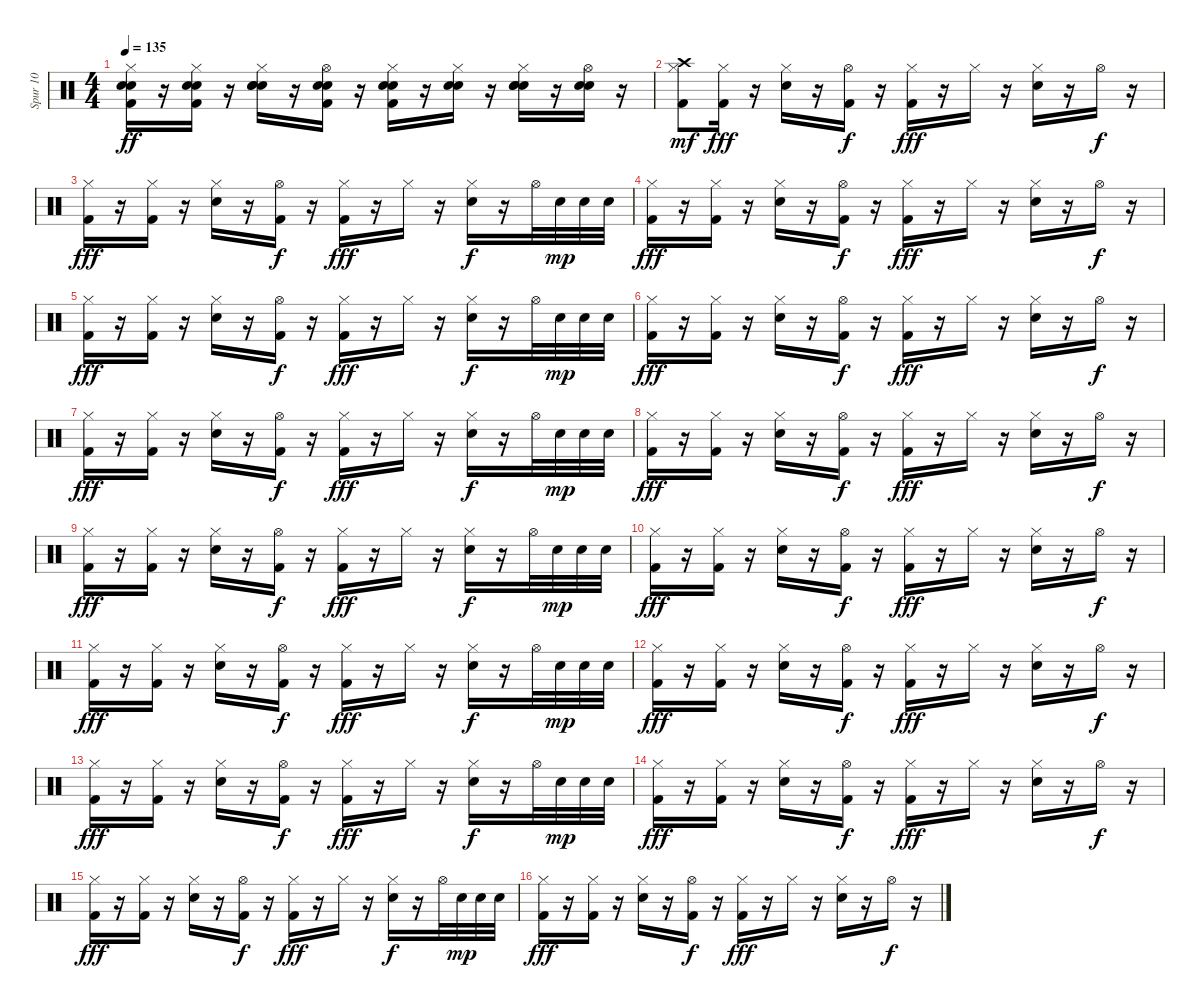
\track ("Spur 10" "Spur 10") {instrument percussion}
\staff {score}
\articulation defaults
\ts (4 4)
\tempo 135
\clef neutral
\ks c
("Snare (hit) 2" "Kick (hit) 2" "Hi-Hat (closed)" "Hand Clap (hit)").16{dy ff} r.16 ("Snare (hit) 2" "Hi-Hat (closed)" "Kick (hit) 2" "Hand Clap (hit)").16 r.16 ("Electric Snare (hit)" "Hi-Hat (closed)" "Snare (hit) 2" "Hand Clap (hit)").16 r.16 ("Hand Clap (hit)" "Kick (hit) 2" "Hi-Hat (open)" "Snare (hit) 2").16 r.16 ("Kick (hit) 2" "Snare (hit) 2" "Hi-Hat (closed)" "Hand Clap (hit)").16 r.16 ("Snare (hit) 2" "Hand Clap (hit)" "Hi-Hat (closed)").16 r.16 ("Hi-Hat (closed)" "Electric Snare (hit)" "Snare (hit) 2" "Hand Clap (hit)").16 r.16 ("Snare (hit) 2" "Hi-Hat (open)" "Hand Clap (hit)").16 r.16 |
("Hi-Hat (closed)" "Kick (hit) 2" "Crash high (hit)").8{dy mf} ("Hi-Hat (closed)" "Kick (hit) 2").16{dy fff} r.16 ("Hi-Hat (closed)" "Electric Snare (hit)").16 r.16 ("Hi-Hat (open)" "Kick (hit) 2").16{dy f} r.16 ("Hi-Hat (closed)" "Kick (hit) 2").16{dy fff} r.16 "Hi-Hat (closed)".16 r.16 ("Hi-Hat (closed)" "Electric Snare (hit)").16 r.16 "Hi-Hat (open)".16{dy f} r.16 |
("Hi-Hat (closed)" "Kick (hit) 2").16{dy fff} r.16 ("Hi-Hat (closed)" "Kick (hit) 2").16 r.16 ("Hi-Hat (closed)" "Electric Snare (hit)").16 r.16 ("Hi-Hat (open)" "Kick (hit) 2").16{dy f} r.16 ("Hi-Hat (closed)" "Kick (hit) 2").16{dy fff} r.16 "Hi-Hat (closed)".16 r.16 ("Electric Snare (hit)" "Hi-Hat (closed)").16{dy f} r.16 "Hi-Hat (open)".32 "Snare (hit) 2".32{dy mp} "Snare (hit) 2".32 "Snare (hit) 2".32 |
("Hi-Hat (closed)" "Kick (hit) 2").16{dy fff} r.16 ("Hi-Hat (closed)" "Kick (hit) 2").16 r.16 ("Hi-Hat (closed)" "Electric Snare (hit)").16 r.16 ("Hi-Hat (open)" "Kick (hit) 2").16{dy f} r.16 ("Hi-Hat (closed)" "Kick (hit) 2").16{dy fff} r.16 "Hi-Hat (closed)".16 r.16 ("Hi-Hat (closed)" "Electric Snare (hit)").16 r.16 "Hi-Hat (open)".16{dy f} r.16 |
("Hi-Hat (closed)" "Kick (hit) 2").16{dy fff} r.16 ("Hi-Hat (closed)" "Kick (hit) 2").16 r.16 ("Hi-Hat (closed)" "Electric Snare (hit)").16 r.16 ("Hi-Hat (open)" "Kick (hit) 2").16{dy f} r.16 ("Hi-Hat (closed)" "Kick (hit) 2").16{dy fff} r.16 "Hi-Hat (closed)".16 r.16 ("Electric Snare (hit)" "Hi-Hat (closed)").16{dy f} r.16 "Hi-Hat (open)".32 "Snare (hit) 2".32{dy mp} "Snare (hit) 2".32 "Snare (hit) 2".32 |
("Hi-Hat (closed)" "Kick (hit) 2").16{dy fff} r.16 ("Hi-Hat (closed)" "Kick (hit) 2").16 r.16 ("Hi-Hat (closed)" "Electric Snare (hit)").16 r.16 ("Hi-Hat (open)" "Kick (hit) 2").16{dy f} r.16 ("Hi-Hat (closed)" "Kick (hit) 2").16{dy fff} r.16 "Hi-Hat (closed)".16 r.16 ("Hi-Hat (closed)" "Electric Snare (hit)").16 r.16 "Hi-Hat (open)".16{dy f} r.16 |
("Hi-Hat (closed)" "Kick (hit) 2").16{dy fff} r.16 ("Hi-Hat (closed)" "Kick (hit) 2").16 r.16 ("Hi-Hat (closed)" "Electric Snare (hit)").16 r.16 ("Hi-Hat (open)" "Kick (hit) 2").16{dy f} r.16 ("Hi-Hat (closed)" "Kick (hit) 2").16{dy fff} r.16 "Hi-Hat (closed)".16 r.16 ("Electric Snare (hit)" "Hi-Hat (closed)").16{dy f} r.16 "Hi-Hat (open)".32 "Snare (hit) 2".32{dy mp} "Snare (hit) 2".32 "Snare (hit) 2".32 |
("Hi-Hat (closed)" "Kick (hit) 2").16{dy fff} r.16 ("Hi-Hat (closed)" "Kick (hit) 2").16 r.16 ("Hi-Hat (closed)" "Electric Snare (hit)").16 r.16 ("Hi-Hat (open)" "Kick (hit) 2").16{dy f} r.16 ("Hi-Hat (closed)" "Kick (hit) 2").16{dy fff} r.16 "Hi-Hat (closed)".16 r.16 ("Hi-Hat (closed)" "Electric Snare (hit)").16 r.16 "Hi-Hat (open)".16{dy f} r.16 |
("Hi-Hat (closed)" "Kick (hit) 2").16{dy fff} r.16 ("Hi-Hat (closed)" "Kick (hit) 2").16 r.16 ("Hi-Hat (closed)" "Electric Snare (hit)").16 r.16 ("Hi-Hat (open)" "Kick (hit) 2").16{dy f} r.16 ("Hi-Hat (closed)" "Kick (hit) 2").16{dy fff} r.16 "Hi-Hat (closed)".16 r.16 ("Electric Snare (hit)" "Hi-Hat (closed)").16{dy f} r.16 "Hi-Hat (open)".32 "Snare (hit) 2".32{dy mp} "Snare (hit) 2".32 "Snare (hit) 2".32 |
("Hi-Hat (closed)" "Kick (hit) 2").16{dy fff} r.16 ("Hi-Hat (closed)" "Kick (hit) 2").16 r.16 ("Hi-Hat (closed)" "Electric Snare (hit)").16 r.16 ("Hi-Hat (open)" "Kick (hit) 2").16{dy f} r.16 ("Hi-Hat (closed)" "Kick (hit) 2").16{dy fff} r.16 "Hi-Hat (closed)".16 r.16 ("Hi-Hat (closed)" "Electric Snare (hit)").16 r.16 "Hi-Hat (open)".16{dy f} r.16 |
("Hi-Hat (closed)" "Kick (hit) 2").16{dy fff} r.16 ("Hi-Hat (closed)" "Kick (hit) 2").16 r.16 ("Hi-Hat (closed)" "Electric Snare (hit)").16 r.16 ("Hi-Hat (open)" "Kick (hit) 2").16{dy f} r.16 ("Hi-Hat (closed)" "Kick (hit) 2").16{dy fff} r.16 "Hi-Hat (closed)".16 r.16 ("Electric Snare (hit)" "Hi-Hat (closed)").16{dy f} r.16 "Hi-Hat (open)".32 "Snare (hit) 2".32{dy mp} "Snare (hit) 2".32 "Snare (hit) 2".32 |
("Hi-Hat (closed)" "Kick (hit) 2").16{dy fff} r.16 ("Hi-Hat (closed)" "Kick (hit) 2").16 r.16 ("Hi-Hat (closed)" "Electric Snare (hit)").16 r.16 ("Hi-Hat (open)" "Kick (hit) 2").16{dy f} r.16 ("Hi-Hat (closed)" "Kick (hit) 2").16{dy fff} r.16 "Hi-Hat (closed)".16 r.16 ("Hi-Hat (closed)" "Electric Snare (hit)").16 r.16 "Hi-Hat (open)".16{dy f} r.16 |
("Hi-Hat (closed)" "Kick (hit) 2").16{dy fff} r.16 ("Hi-Hat (closed)" "Kick (hit) 2").16 r.16 ("Hi-Hat (closed)" "Electric Snare (hit)").16 r.16 ("Hi-Hat (open)" "Kick (hit) 2").16{dy f} r.16 ("Hi-Hat (closed)" "Kick (hit) 2").16{dy fff} r.16 "Hi-Hat (closed)".16 r.16 ("Electric Snare (hit)" "Hi-Hat (closed)").16{dy f} r.16 "Hi-Hat (open)".32 "Snare (hit) 2".32{dy mp} "Snare (hit) 2".32 "Snare (hit) 2".32 |
("Hi-Hat (closed)" "Kick (hit) 2").16{dy fff} r.16 ("Hi-Hat (closed)" "Kick (hit) 2").16 r.16 ("Hi-Hat (closed)" "Electric Snare (hit)").16 r.16 ("Hi-Hat (open)" "Kick (hit) 2").16{dy f} r.16 ("Hi-Hat (closed)" "Kick (hit) 2").16{dy fff} r.16 "Hi-Hat (closed)".16 r.16 ("Hi-Hat (closed)" "Electric Snare (hit)").16 r.16 "Hi-Hat (open)".16{dy f} r.16 |
("Hi-Hat (closed)" "Kick (hit) 2").16{dy fff} r.16 ("Hi-Hat (closed)" "Kick (hit) 2").16 r.16 ("Hi-Hat (closed)" "Electric Snare (hit)").16 r.16 ("Hi-Hat (open)" "Kick (hit) 2").16{dy f} r.16 ("Hi-Hat (closed)" "Kick (hit) 2").16{dy fff} r.16 "Hi-Hat (closed)".16 r.16 ("Electric Snare (hit)" "Hi-Hat (closed)").16{dy f} r.16 "Hi-Hat (open)".32 "Snare (hit) 2".32{dy mp} "Snare (hit) 2".32 "Snare (hit) 2".32 |
("Hi-Hat (closed)" "Kick (hit) 2").16{dy fff} r.16 ("Hi-Hat (closed)" "Kick (hit) 2").16 r.16 ("Hi-Hat (closed)" "Electric Snare (hit)").16 r.16 ("Hi-Hat (open)" "Kick (hit) 2").16{dy f} r.16 ("Hi-Hat (closed)" "Kick (hit) 2").16{dy fff} r.16 "Hi-Hat (closed)".16 r.16 ("Hi-Hat (closed)" "Electric Snare (hit)").16 r.16 "Hi-Hat (open)".16{dy f} r.16
